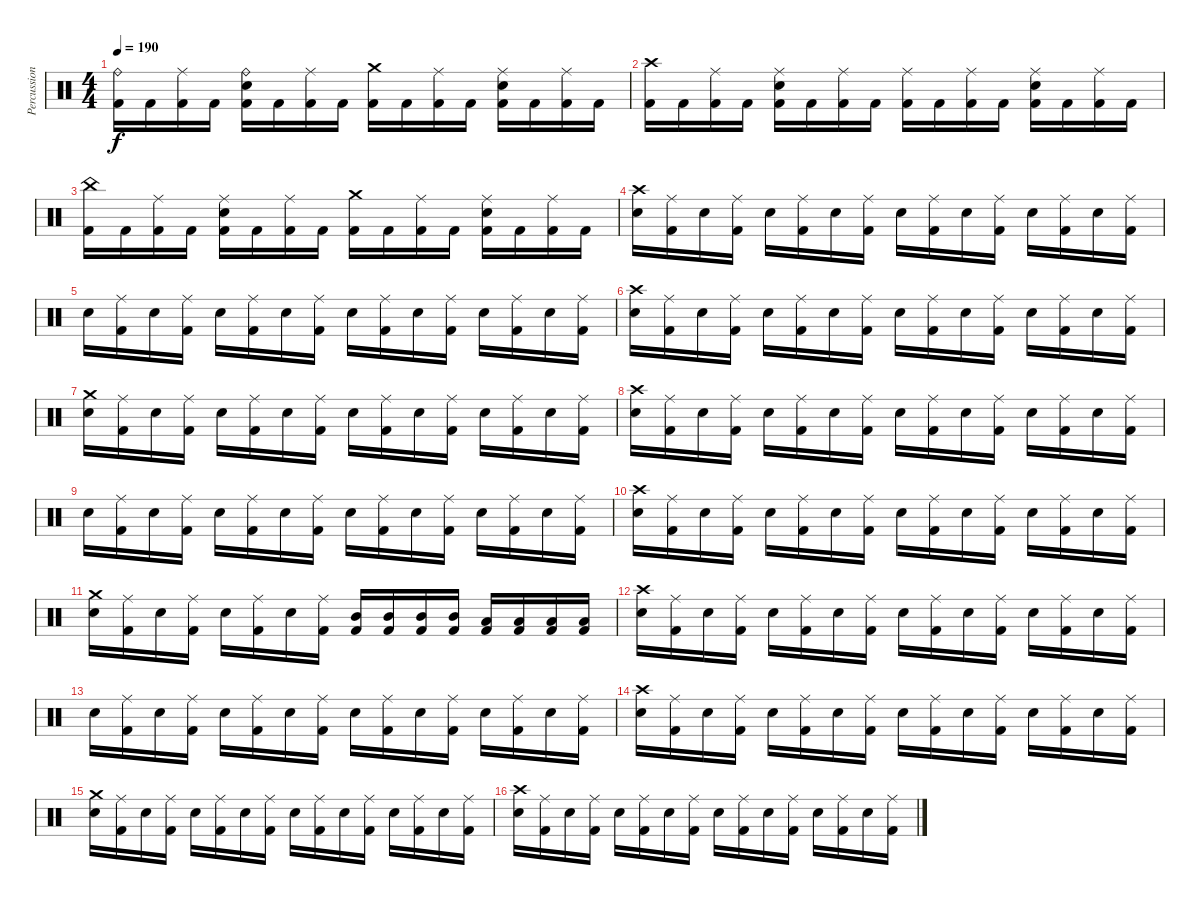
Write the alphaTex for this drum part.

\track ("Percussion" "Percussion") {instrument percussion}
\staff {score}
\articulation defaults
\ts (4 4)
\tempo 190
\clef neutral
\ks c
("Ride (bell)" "Kick (hit) 2").16{dy f} "Kick (hit) 2".16 ("Ride (middle)" "Kick (hit) 2").16 "Kick (hit) 2".16 ("Ride (bell)" "Snare (hit) 2" "Kick (hit) 2").16 "Kick (hit) 2".16 ("Ride (middle)" "Kick (hit) 2").16 "Kick (hit) 2".16 ("Crash medium (hit)" "Kick (hit) 2").16 "Kick (hit) 2".16 ("Ride (middle)" "Kick (hit) 2").16 "Kick (hit) 2".16 ("Ride (middle)" "Snare (hit) 2" "Kick (hit) 2").16 "Kick (hit) 2".16 ("Ride (middle)" "Kick (hit) 2").16 "Kick (hit) 2".16 |
("Crash high (hit)" "Kick (hit) 2").16 "Kick (hit) 2".16 ("Ride (middle)" "Kick (hit) 2").16 "Kick (hit) 2".16 ("Ride (middle)" "Snare (hit) 2" "Kick (hit) 2").16 "Kick (hit) 2".16 ("Ride (middle)" "Kick (hit) 2").16 "Kick (hit) 2".16 ("Ride (middle)" "Kick (hit) 2").16 "Kick (hit) 2".16 ("Ride (middle)" "Kick (hit) 2").16 "Kick (hit) 2".16 ("Ride (middle)" "Snare (hit) 2" "Kick (hit) 2").16 "Kick (hit) 2".16 ("Ride (middle)" "Kick (hit) 2").16 "Kick (hit) 2".16 |
("China (hit)" "Kick (hit) 2").16 "Kick (hit) 2".16 ("Ride (middle)" "Kick (hit) 2").16 "Kick (hit) 2".16 ("Ride (middle)" "Snare (hit) 2" "Kick (hit) 2").16 "Kick (hit) 2".16 ("Ride (middle)" "Kick (hit) 2").16 "Kick (hit) 2".16 ("Crash medium (hit)" "Kick (hit) 2").16 "Kick (hit) 2".16 ("Ride (middle)" "Kick (hit) 2").16 "Kick (hit) 2".16 ("Ride (middle)" "Snare (hit) 2" "Kick (hit) 2").16 "Kick (hit) 2".16 ("Ride (middle)" "Kick (hit) 2").16 "Kick (hit) 2".16 |
("Crash high (hit)" "Snare (hit) 2").16 ("Ride (middle)" "Kick (hit) 2").16 "Snare (hit) 2".16 ("Ride (middle)" "Kick (hit) 2").16 "Snare (hit) 2".16 ("Ride (middle)" "Kick (hit) 2").16 "Snare (hit) 2".16 ("Ride (middle)" "Kick (hit) 2").16 "Snare (hit) 2".16 ("Ride (middle)" "Kick (hit) 2").16 "Snare (hit) 2".16 ("Ride (middle)" "Kick (hit) 2").16 "Snare (hit) 2".16 ("Ride (middle)" "Kick (hit) 2").16 "Snare (hit) 2".16 ("Ride (middle)" "Kick (hit) 2").16 |
"Snare (hit) 2".16 ("Ride (middle)" "Kick (hit) 2").16 "Snare (hit) 2".16 ("Ride (middle)" "Kick (hit) 2").16 "Snare (hit) 2".16 ("Ride (middle)" "Kick (hit) 2").16 "Snare (hit) 2".16 ("Ride (middle)" "Kick (hit) 2").16 "Snare (hit) 2".16 ("Ride (middle)" "Kick (hit) 2").16 "Snare (hit) 2".16 ("Ride (middle)" "Kick (hit) 2").16 "Snare (hit) 2".16 ("Ride (middle)" "Kick (hit) 2").16 "Snare (hit) 2".16 ("Ride (middle)" "Kick (hit) 2").16 |
("Crash high (hit)" "Snare (hit) 2").16 ("Ride (middle)" "Kick (hit) 2").16 "Snare (hit) 2".16 ("Ride (middle)" "Kick (hit) 2").16 "Snare (hit) 2".16 ("Ride (middle)" "Kick (hit) 2").16 "Snare (hit) 2".16 ("Ride (middle)" "Kick (hit) 2").16 "Snare (hit) 2".16 ("Ride (middle)" "Kick (hit) 2").16 "Snare (hit) 2".16 ("Ride (middle)" "Kick (hit) 2").16 "Snare (hit) 2".16 ("Ride (middle)" "Kick (hit) 2").16 "Snare (hit) 2".16 ("Ride (middle)" "Kick (hit) 2").16 |
("Crash medium (hit)" "Snare (hit) 2").16 ("Ride (middle)" "Kick (hit) 2").16 "Snare (hit) 2".16 ("Ride (middle)" "Kick (hit) 2").16 "Snare (hit) 2".16 ("Ride (middle)" "Kick (hit) 2").16 "Snare (hit) 2".16 ("Ride (middle)" "Kick (hit) 2").16 "Snare (hit) 2".16 ("Ride (middle)" "Kick (hit) 2").16 "Snare (hit) 2".16 ("Ride (middle)" "Kick (hit) 2").16 "Snare (hit) 2".16 ("Ride (middle)" "Kick (hit) 2").16 "Snare (hit) 2".16 ("Ride (middle)" "Kick (hit) 2").16 |
("Crash high (hit)" "Snare (hit) 2").16 ("Ride (middle)" "Kick (hit) 2").16 "Snare (hit) 2".16 ("Ride (middle)" "Kick (hit) 2").16 "Snare (hit) 2".16 ("Ride (middle)" "Kick (hit) 2").16 "Snare (hit) 2".16 ("Ride (middle)" "Kick (hit) 2").16 "Snare (hit) 2".16 ("Ride (middle)" "Kick (hit) 2").16 "Snare (hit) 2".16 ("Ride (middle)" "Kick (hit) 2").16 "Snare (hit) 2".16 ("Ride (middle)" "Kick (hit) 2").16 "Snare (hit) 2".16 ("Ride (middle)" "Kick (hit) 2").16 |
"Snare (hit) 2".16 ("Ride (middle)" "Kick (hit) 2").16 "Snare (hit) 2".16 ("Ride (middle)" "Kick (hit) 2").16 "Snare (hit) 2".16 ("Ride (middle)" "Kick (hit) 2").16 "Snare (hit) 2".16 ("Ride (middle)" "Kick (hit) 2").16 "Snare (hit) 2".16 ("Ride (middle)" "Kick (hit) 2").16 "Snare (hit) 2".16 ("Ride (middle)" "Kick (hit) 2").16 "Snare (hit) 2".16 ("Ride (middle)" "Kick (hit) 2").16 "Snare (hit) 2".16 ("Ride (middle)" "Kick (hit) 2").16 |
("Crash high (hit)" "Snare (hit) 2").16 ("Ride (middle)" "Kick (hit) 2").16 "Snare (hit) 2".16 ("Ride (middle)" "Kick (hit) 2").16 "Snare (hit) 2".16 ("Ride (middle)" "Kick (hit) 2").16 "Snare (hit) 2".16 ("Ride (middle)" "Kick (hit) 2").16 "Snare (hit) 2".16 ("Ride (middle)" "Kick (hit) 2").16 "Snare (hit) 2".16 ("Ride (middle)" "Kick (hit) 2").16 "Snare (hit) 2".16 ("Ride (middle)" "Kick (hit) 2").16 "Snare (hit) 2".16 ("Ride (middle)" "Kick (hit) 2").16 |
("Crash medium (hit)" "Snare (hit) 2").16 ("Ride (middle)" "Kick (hit) 2").16 "Snare (hit) 2".16 ("Ride (middle)" "Kick (hit) 2").16 "Snare (hit) 2".16 ("Ride (middle)" "Kick (hit) 2").16 "Snare (hit) 2".16 ("Ride (middle)" "Kick (hit) 2").16 ("Mid Tom (hit)" "Kick (hit) 2").16 ("Mid Tom (hit)" "Kick (hit) 2").16 ("Mid Tom (hit)" "Kick (hit) 2").16 ("Mid Tom (hit)" "Kick (hit) 2").16 ("Low Tom (hit)" "Kick (hit) 2").16 ("Low Tom (hit)" "Kick (hit) 2").16 ("Low Tom (hit)" "Kick (hit) 2").16 ("Low Tom (hit)" "Kick (hit) 2").16 |
("Crash high (hit)" "Snare (hit) 2").16 ("Ride (middle)" "Kick (hit) 2").16 "Snare (hit) 2".16 ("Ride (middle)" "Kick (hit) 2").16 "Snare (hit) 2".16 ("Ride (middle)" "Kick (hit) 2").16 "Snare (hit) 2".16 ("Ride (middle)" "Kick (hit) 2").16 "Snare (hit) 2".16 ("Ride (middle)" "Kick (hit) 2").16 "Snare (hit) 2".16 ("Ride (middle)" "Kick (hit) 2").16 "Snare (hit) 2".16 ("Ride (middle)" "Kick (hit) 2").16 "Snare (hit) 2".16 ("Ride (middle)" "Kick (hit) 2").16 |
"Snare (hit) 2".16 ("Ride (middle)" "Kick (hit) 2").16 "Snare (hit) 2".16 ("Ride (middle)" "Kick (hit) 2").16 "Snare (hit) 2".16 ("Ride (middle)" "Kick (hit) 2").16 "Snare (hit) 2".16 ("Ride (middle)" "Kick (hit) 2").16 "Snare (hit) 2".16 ("Ride (middle)" "Kick (hit) 2").16 "Snare (hit) 2".16 ("Ride (middle)" "Kick (hit) 2").16 "Snare (hit) 2".16 ("Ride (middle)" "Kick (hit) 2").16 "Snare (hit) 2".16 ("Ride (middle)" "Kick (hit) 2").16 |
("Crash high (hit)" "Snare (hit) 2").16 ("Ride (middle)" "Kick (hit) 2").16 "Snare (hit) 2".16 ("Ride (middle)" "Kick (hit) 2").16 "Snare (hit) 2".16 ("Ride (middle)" "Kick (hit) 2").16 "Snare (hit) 2".16 ("Ride (middle)" "Kick (hit) 2").16 "Snare (hit) 2".16 ("Ride (middle)" "Kick (hit) 2").16 "Snare (hit) 2".16 ("Ride (middle)" "Kick (hit) 2").16 "Snare (hit) 2".16 ("Ride (middle)" "Kick (hit) 2").16 "Snare (hit) 2".16 ("Ride (middle)" "Kick (hit) 2").16 |
("Crash medium (hit)" "Snare (hit) 2").16 ("Ride (middle)" "Kick (hit) 2").16 "Snare (hit) 2".16 ("Ride (middle)" "Kick (hit) 2").16 "Snare (hit) 2".16 ("Ride (middle)" "Kick (hit) 2").16 "Snare (hit) 2".16 ("Ride (middle)" "Kick (hit) 2").16 "Snare (hit) 2".16 ("Ride (middle)" "Kick (hit) 2").16 "Snare (hit) 2".16 ("Ride (middle)" "Kick (hit) 2").16 "Snare (hit) 2".16 ("Ride (middle)" "Kick (hit) 2").16 "Snare (hit) 2".16 ("Ride (middle)" "Kick (hit) 2").16 |
("Crash high (hit)" "Snare (hit) 2").16 ("Ride (middle)" "Kick (hit) 2").16 "Snare (hit) 2".16 ("Ride (middle)" "Kick (hit) 2").16 "Snare (hit) 2".16 ("Ride (middle)" "Kick (hit) 2").16 "Snare (hit) 2".16 ("Ride (middle)" "Kick (hit) 2").16 "Snare (hit) 2".16 ("Ride (middle)" "Kick (hit) 2").16 "Snare (hit) 2".16 ("Ride (middle)" "Kick (hit) 2").16 "Snare (hit) 2".16 ("Ride (middle)" "Kick (hit) 2").16 "Snare (hit) 2".16 ("Ride (middle)" "Kick (hit) 2").16
